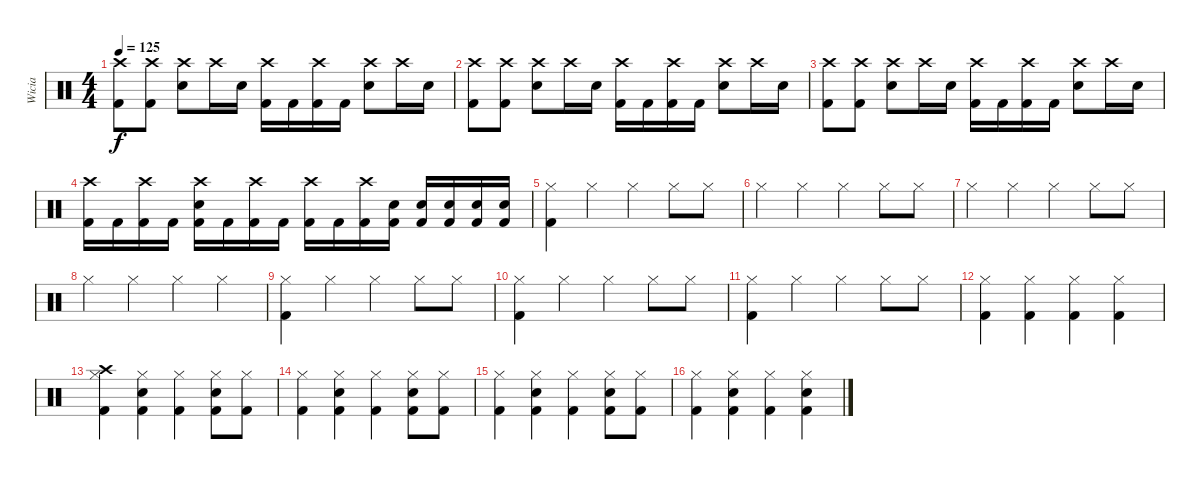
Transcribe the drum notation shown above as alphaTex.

\track ("Wicia" "Wicia") {instrument percussion}
\staff {score}
\articulation defaults
\ts (4 4)
\tempo 125
\clef neutral
\ks c
("Crash high (hit)" "Kick (hit) 2").8{dy f} ("Crash high (hit)" "Kick (hit) 2").8 ("Crash high (hit)" "Electric Snare (hit)").8 "Crash high (hit)".16 "Electric Snare (hit)".16 ("Crash high (hit)" "Kick (hit) 2").16 "Kick (hit) 2".16 ("Crash high (hit)" "Kick (hit) 2").16 "Kick (hit) 2".16 ("Crash high (hit)" "Electric Snare (hit)").8 "Crash high (hit)".16 "Electric Snare (hit)".16 |
("Crash high (hit)" "Kick (hit) 2").8 ("Crash high (hit)" "Kick (hit) 2").8 ("Crash high (hit)" "Electric Snare (hit)").8 "Crash high (hit)".16 "Electric Snare (hit)".16 ("Crash high (hit)" "Kick (hit) 2").16 "Kick (hit) 2".16 ("Crash high (hit)" "Kick (hit) 2").16 "Kick (hit) 2".16 ("Crash high (hit)" "Electric Snare (hit)").8 "Crash high (hit)".16 "Electric Snare (hit)".16 |
("Crash high (hit)" "Kick (hit) 2").8 ("Crash high (hit)" "Kick (hit) 2").8 ("Crash high (hit)" "Electric Snare (hit)").8 "Crash high (hit)".16 "Electric Snare (hit)".16 ("Crash high (hit)" "Kick (hit) 2").16 "Kick (hit) 2".16 ("Crash high (hit)" "Kick (hit) 2").16 "Kick (hit) 2".16 ("Crash high (hit)" "Electric Snare (hit)").8 "Crash high (hit)".16 "Electric Snare (hit)".16 |
("Crash high (hit)" "Kick (hit) 2").16 "Kick (hit) 2".16 ("Crash high (hit)" "Kick (hit) 2").16 "Kick (hit) 2".16 ("Crash high (hit)" "Electric Snare (hit)" "Kick (hit) 2").16 "Kick (hit) 2".16 ("Crash high (hit)" "Kick (hit) 2").16 "Kick (hit) 2".16 ("Crash high (hit)" "Kick (hit) 2").16 "Kick (hit) 2".16 ("Crash high (hit)" "Kick (hit) 2").16 ("Electric Snare (hit)" "Kick (hit) 2").16 ("Electric Snare (hit)" "Kick (hit) 2").16 ("Electric Snare (hit)" "Kick (hit) 2").16 ("Electric Snare (hit)" "Kick (hit) 2").16 ("Electric Snare (hit)" "Kick (hit) 2").16 |
("Hi-Hat (closed)" "Kick (hit) 2").4 "Hi-Hat (closed)".4 "Hi-Hat (closed)".4 "Hi-Hat (closed)".8 "Hi-Hat (closed)".8 |
"Hi-Hat (closed)".4 "Hi-Hat (closed)".4 "Hi-Hat (closed)".4 "Hi-Hat (closed)".8 "Hi-Hat (closed)".8 |
"Hi-Hat (closed)".4 "Hi-Hat (closed)".4 "Hi-Hat (closed)".4 "Hi-Hat (closed)".8 "Hi-Hat (closed)".8 |
"Hi-Hat (closed)".4 "Hi-Hat (closed)".4 "Hi-Hat (closed)".4 "Hi-Hat (closed)".4 |
("Hi-Hat (closed)" "Kick (hit) 2").4 "Hi-Hat (closed)".4 "Hi-Hat (closed)".4 "Hi-Hat (closed)".8 "Hi-Hat (closed)".8 |
("Hi-Hat (closed)" "Kick (hit) 2").4 "Hi-Hat (closed)".4 "Hi-Hat (closed)".4 "Hi-Hat (closed)".8 "Hi-Hat (closed)".8 |
("Hi-Hat (closed)" "Kick (hit) 2").4 "Hi-Hat (closed)".4 "Hi-Hat (closed)".4 "Hi-Hat (closed)".8 "Hi-Hat (closed)".8 |
("Hi-Hat (closed)" "Kick (hit) 2").4 ("Hi-Hat (closed)" "Kick (hit) 2").4 ("Hi-Hat (closed)" "Kick (hit) 2").4 ("Hi-Hat (closed)" "Kick (hit) 2").4 |
("Kick (hit) 2" "Hi-Hat (closed)" "Crash high (hit)").4 ("Kick (hit) 2" "Hi-Hat (closed)" "Electric Snare (hit)").4 ("Kick (hit) 2" "Hi-Hat (closed)").4 ("Kick (hit) 2" "Hi-Hat (closed)" "Electric Snare (hit)").8 ("Kick (hit) 2" "Hi-Hat (closed)").8 |
("Kick (hit) 2" "Hi-Hat (closed)").4 ("Kick (hit) 2" "Hi-Hat (closed)" "Electric Snare (hit)").4 ("Kick (hit) 2" "Hi-Hat (closed)").4 ("Kick (hit) 2" "Hi-Hat (closed)" "Electric Snare (hit)").8 ("Kick (hit) 2" "Hi-Hat (closed)").8 |
("Kick (hit) 2" "Hi-Hat (closed)").4 ("Kick (hit) 2" "Hi-Hat (closed)" "Electric Snare (hit)").4 ("Kick (hit) 2" "Hi-Hat (closed)").4 ("Kick (hit) 2" "Hi-Hat (closed)" "Electric Snare (hit)").8 ("Kick (hit) 2" "Hi-Hat (closed)").8 |
("Kick (hit) 2" "Hi-Hat (closed)").4 ("Kick (hit) 2" "Hi-Hat (closed)" "Electric Snare (hit)").4 ("Kick (hit) 2" "Hi-Hat (closed)").4 ("Kick (hit) 2" "Hi-Hat (closed)" "Electric Snare (hit)").4
